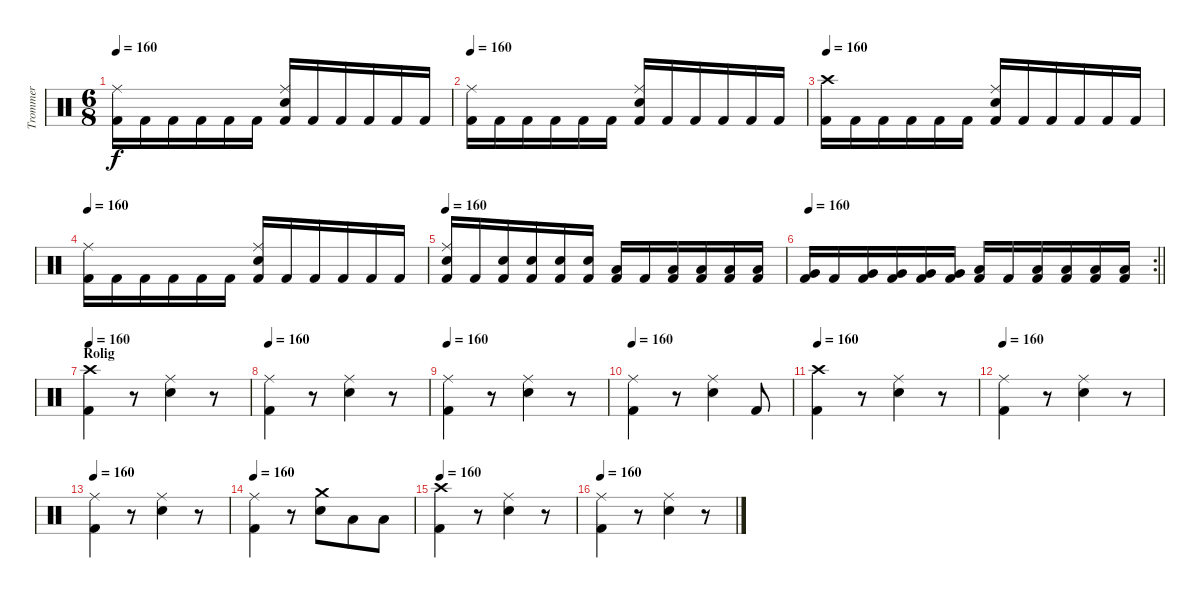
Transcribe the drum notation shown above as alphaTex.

\track ("Trommer" "Trommer") {instrument percussion}
\staff {score}
\articulation defaults
\ts (6 8)
\tempo 160
\clef neutral
\ks c
("Kick (hit) 2" "Ride (middle)").16{dy f} "Kick (hit) 2".16 "Kick (hit) 2".16 "Kick (hit) 2".16 "Kick (hit) 2".16 "Kick (hit) 2".16 ("Kick (hit) 2" "Snare (hit) 2" "Ride (middle)").16 "Kick (hit) 2".16 "Kick (hit) 2".16 "Kick (hit) 2".16 "Kick (hit) 2".16 "Kick (hit) 2".16 |
\tempo 160
("Kick (hit) 2" "Ride (middle)").16 "Kick (hit) 2".16 "Kick (hit) 2".16 "Kick (hit) 2".16 "Kick (hit) 2".16 "Kick (hit) 2".16 ("Kick (hit) 2" "Snare (hit) 2" "Ride (middle)").16 "Kick (hit) 2".16 "Kick (hit) 2".16 "Kick (hit) 2".16 "Kick (hit) 2".16 "Kick (hit) 2".16 |
\tempo 160
("Kick (hit) 2" "Crash high (hit)").16 "Kick (hit) 2".16 "Kick (hit) 2".16 "Kick (hit) 2".16 "Kick (hit) 2".16 "Kick (hit) 2".16 ("Kick (hit) 2" "Snare (hit) 2" "Ride (middle)").16 "Kick (hit) 2".16 "Kick (hit) 2".16 "Kick (hit) 2".16 "Kick (hit) 2".16 "Kick (hit) 2".16 |
\tempo 160
("Kick (hit) 2" "Ride (middle)").16 "Kick (hit) 2".16 "Kick (hit) 2".16 "Kick (hit) 2".16 "Kick (hit) 2".16 "Kick (hit) 2".16 ("Kick (hit) 2" "Snare (hit) 2" "Ride (middle)").16 "Kick (hit) 2".16 "Kick (hit) 2".16 "Kick (hit) 2".16 "Kick (hit) 2".16 "Kick (hit) 2".16 |
\tempo 160
("Kick (hit) 2" "Snare (hit) 2" "Ride (middle)").16 "Kick (hit) 2".16 ("Kick (hit) 2" "Snare (hit) 2").16 ("Kick (hit) 2" "Snare (hit) 2").16 ("Kick (hit) 2" "Snare (hit) 2").16 ("Kick (hit) 2" "Snare (hit) 2").16 ("Kick (hit) 2" "Low Tom (hit)").16 "Kick (hit) 2".16 ("Kick (hit) 2" "Low Tom (hit)").16 ("Kick (hit) 2" "Low Tom (hit)").16 ("Kick (hit) 2" "Low Tom (hit)").16 ("Kick (hit) 2" "Low Tom (hit)").16 |
\rc 2
\tempo 160
\barLineRight lightlight
("Kick (hit) 2" "Very Low Tom (hit)").16 "Kick (hit) 2".16 ("Kick (hit) 2" "Very Low Tom (hit)").16 ("Kick (hit) 2" "Very Low Tom (hit)").16 ("Kick (hit) 2" "Very Low Tom (hit)").16 ("Kick (hit) 2" "Very Low Tom (hit)").16 ("Kick (hit) 2" "Low Floor Tom (hit)").16 "Kick (hit) 2".16 ("Kick (hit) 2" "Low Floor Tom (hit)").16 ("Kick (hit) 2" "Low Floor Tom (hit)").16 ("Kick (hit) 2" "Low Floor Tom (hit)").16 ("Kick (hit) 2" "Low Floor Tom (hit)").16 |
\section ("" "Rolig")
\tempo 160
("Kick (hit) 2" "Crash high (hit)").4 r.8 ("Snare (hit) 2" "Ride (middle)").4 r.8 |
\tempo 160
("Kick (hit) 2" "Ride (middle)").4 r.8 ("Snare (hit) 2" "Ride (middle)").4 r.8 |
\tempo 160
("Kick (hit) 2" "Ride (middle)").4 r.8 ("Snare (hit) 2" "Ride (middle)").4 r.8 |
\tempo 160
("Kick (hit) 2" "Ride (middle)").4 r.8 ("Snare (hit) 2" "Ride (middle)").4 "Kick (hit) 2".8 |
\tempo 160
("Kick (hit) 2" "Crash high (hit)").4 r.8 ("Snare (hit) 2" "Ride (middle)").4 r.8 |
\tempo 160
("Kick (hit) 2" "Ride (middle)").4 r.8 ("Snare (hit) 2" "Ride (middle)").4 r.8 |
\tempo 160
("Kick (hit) 2" "Ride (middle)").4 r.8 ("Snare (hit) 2" "Ride (middle)").4 r.8 |
\tempo 160
("Kick (hit) 2" "Ride (middle)").4 r.8 ("Snare (hit) 2" "Crash medium (hit)").8 "Low Tom (hit)".8 "Low Floor Tom (hit)".8 |
\tempo 160
("Kick (hit) 2" "Crash high (hit)").4 r.8 ("Snare (hit) 2" "Ride (middle)").4 r.8 |
\tempo 160
("Kick (hit) 2" "Ride (middle)").4 r.8 ("Snare (hit) 2" "Ride (middle)").4 r.8
